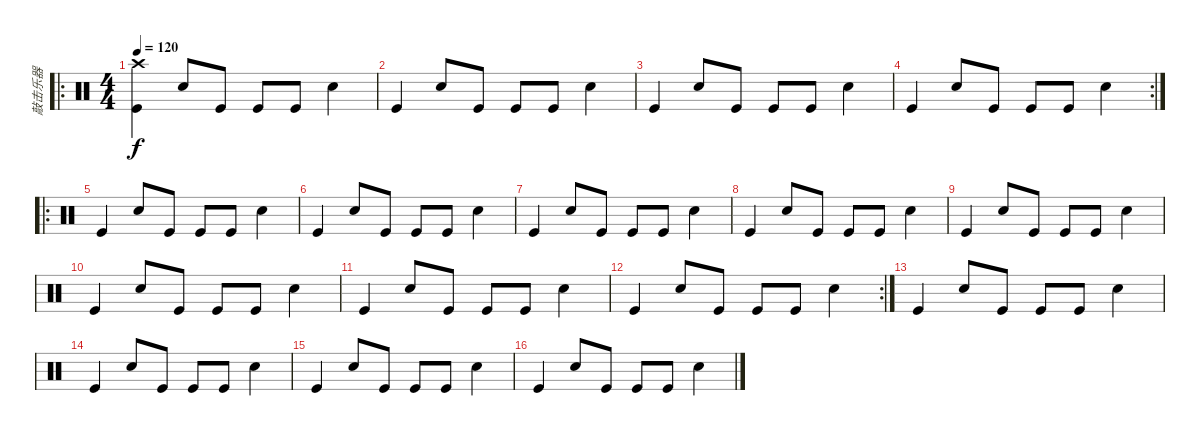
\track ("敲击乐器" "敲击乐器") {instrument percussion}
\staff {score}
\articulation defaults
\ro
\ts (4 4)
\tempo 120
\clef neutral
\ks c
("Crash high (hit)" "Kick (hit)").4{dy f} "Snare (hit) 2".8 "Kick (hit)".8 "Kick (hit)".8 "Kick (hit)".8 "Snare (hit) 2".4 |
"Kick (hit)".4 "Snare (hit) 2".8 "Kick (hit)".8 "Kick (hit)".8 "Kick (hit)".8 "Snare (hit) 2".4 |
"Kick (hit)".4 "Snare (hit) 2".8 "Kick (hit)".8 "Kick (hit)".8 "Kick (hit)".8 "Snare (hit) 2".4 |
\rc 2 "Kick (hit)".4 "Snare (hit) 2".8 "Kick (hit)".8 "Kick (hit)".8 "Kick (hit)".8 "Snare (hit) 2".4
|
\ro "Kick (hit)".4 "Snare (hit) 2".8 "Kick (hit)".8 "Kick (hit)".8 "Kick (hit)".8 "Snare (hit) 2".4
|
"Kick (hit)".4 "Snare (hit) 2".8 "Kick (hit)".8 "Kick (hit)".8 "Kick (hit)".8 "Snare (hit) 2".4 |
"Kick (hit)".4 "Snare (hit) 2".8 "Kick (hit)".8 "Kick (hit)".8 "Kick (hit)".8 "Snare (hit) 2".4 |
"Kick (hit)".4 "Snare (hit) 2".8 "Kick (hit)".8 "Kick (hit)".8 "Kick (hit)".8 "Snare (hit) 2".4 |
"Kick (hit)".4 "Snare (hit) 2".8 "Kick (hit)".8 "Kick (hit)".8 "Kick (hit)".8 "Snare (hit) 2".4 |
"Kick (hit)".4 "Snare (hit) 2".8 "Kick (hit)".8 "Kick (hit)".8 "Kick (hit)".8 "Snare (hit) 2".4 |
"Kick (hit)".4 "Snare (hit) 2".8 "Kick (hit)".8 "Kick (hit)".8 "Kick (hit)".8 "Snare (hit) 2".4 |
\rc 2 "Kick (hit)".4 "Snare (hit) 2".8 "Kick (hit)".8 "Kick (hit)".8 "Kick (hit)".8 "Snare (hit) 2".4
|
"Kick (hit)".4 "Snare (hit) 2".8 "Kick (hit)".8 "Kick (hit)".8 "Kick (hit)".8 "Snare (hit) 2".4 |
"Kick (hit)".4 "Snare (hit) 2".8 "Kick (hit)".8 "Kick (hit)".8 "Kick (hit)".8 "Snare (hit) 2".4 |
"Kick (hit)".4 "Snare (hit) 2".8 "Kick (hit)".8 "Kick (hit)".8 "Kick (hit)".8 "Snare (hit) 2".4 |
"Kick (hit)".4 "Snare (hit) 2".8 "Kick (hit)".8 "Kick (hit)".8 "Kick (hit)".8 "Snare (hit) 2".4
